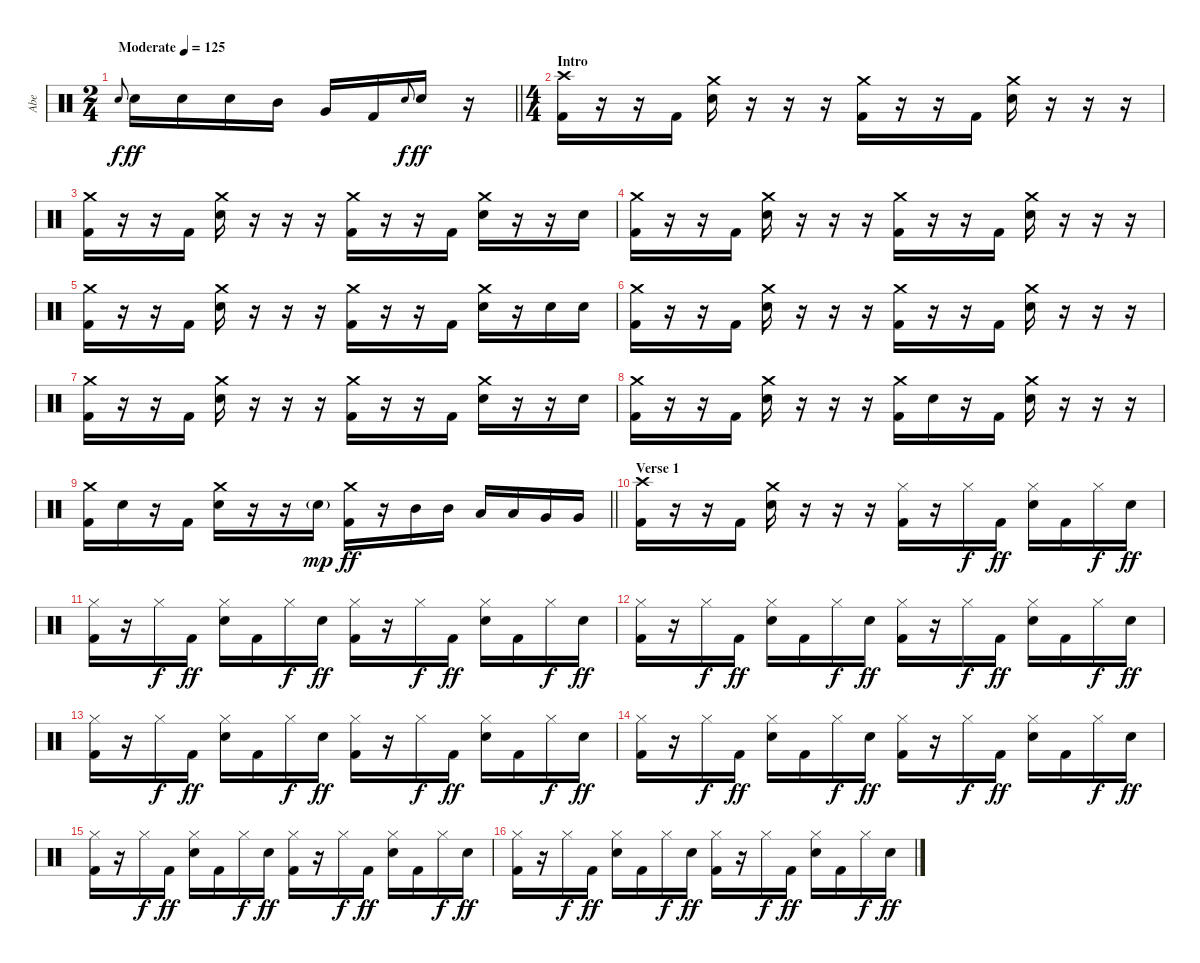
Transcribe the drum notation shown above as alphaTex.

\track ("Abe" "Abe") {instrument percussion}
\staff {score}
\articulation defaults
\ts (2 4)
\tempo (125 "Moderate")
\clef neutral
\barLineRight lightlight
\ks c "Electric Snare (hit)".8{gr onbeat dy f} "Electric Snare (hit)".16{dy ff} "Electric Snare (hit)".16 "Electric Snare (hit)".16 "Mid Tom (hit)".16 "Very Low Tom (hit)".16 "Kick (hit) 2".16 "Electric Snare (hit)".8{gr onbeat dy f} "Electric Snare (hit)".16{dy ff}
r.16 |
\ts (4 4)
\section ("" "Intro")
("Crash high (hit)" "Kick (hit) 2").16 r.16 r.16 "Kick (hit) 2".16 ("Crash medium (hit)" "Electric Snare (hit)").16 r.16 r.16 r.16 ("Crash medium (hit)" "Kick (hit) 2").16 r.16 r.16 "Kick (hit) 2".16 ("Crash medium (hit)" "Electric Snare (hit)").16 r.16 r.16 r.16 |
("Crash medium (hit)" "Kick (hit) 2").16 r.16 r.16 "Kick (hit) 2".16 ("Crash medium (hit)" "Electric Snare (hit)").16 r.16 r.16 r.16 ("Crash medium (hit)" "Kick (hit) 2").16 r.16 r.16 "Kick (hit) 2".16 ("Crash medium (hit)" "Electric Snare (hit)").16 r.16 r.16 "Electric Snare (hit)".16 |
("Crash medium (hit)" "Kick (hit) 2").16 r.16 r.16 "Kick (hit) 2".16 ("Crash medium (hit)" "Electric Snare (hit)").16 r.16 r.16 r.16 ("Crash medium (hit)" "Kick (hit) 2").16 r.16 r.16 "Kick (hit) 2".16 ("Crash medium (hit)" "Electric Snare (hit)").16 r.16 r.16 r.16 |
("Crash medium (hit)" "Kick (hit) 2").16 r.16 r.16 "Kick (hit) 2".16 ("Crash medium (hit)" "Electric Snare (hit)").16 r.16 r.16 r.16 ("Crash medium (hit)" "Kick (hit) 2").16 r.16 r.16 "Kick (hit) 2".16 ("Crash medium (hit)" "Electric Snare (hit)").16 r.16 "Electric Snare (hit)".16 "Electric Snare (hit)".16 |
("Crash medium (hit)" "Kick (hit) 2").16 r.16 r.16 "Kick (hit) 2".16 ("Crash medium (hit)" "Electric Snare (hit)").16 r.16 r.16 r.16 ("Crash medium (hit)" "Kick (hit) 2").16 r.16 r.16 "Kick (hit) 2".16 ("Crash medium (hit)" "Electric Snare (hit)").16 r.16 r.16 r.16 |
("Crash medium (hit)" "Kick (hit) 2").16 r.16 r.16 "Kick (hit) 2".16 ("Crash medium (hit)" "Electric Snare (hit)").16 r.16 r.16 r.16 ("Crash medium (hit)" "Kick (hit) 2").16 r.16 r.16 "Kick (hit) 2".16 ("Crash medium (hit)" "Electric Snare (hit)").16 r.16 r.16 "Electric Snare (hit)".16 |
("Crash medium (hit)" "Kick (hit) 2").16 r.16 r.16 "Kick (hit) 2".16 ("Crash medium (hit)" "Electric Snare (hit)").16 r.16 r.16 r.16 ("Crash medium (hit)" "Kick (hit) 2").16 "Electric Snare (hit)".16 r.16 "Kick (hit) 2".16 ("Crash medium (hit)" "Electric Snare (hit)").16 r.16 r.16 r.16 |
\barLineRight lightlight
("Crash medium (hit)" "Kick (hit) 2").16 "Electric Snare (hit)".16 r.16 "Kick (hit) 2".16 ("Crash medium (hit)" "Electric Snare (hit)").16 r.16 r.16 "Electric Snare (hit)"{g}.16{dy mp} ("Crash medium (hit)" "Kick (hit) 2").16{dy ff} r.16 "Mid Tom (hit)".16 "Mid Tom (hit)".16 "Low Tom (hit)".16 "Low Tom (hit)".16 "Very Low Tom (hit)".16 "Very Low Tom (hit)".16 |
\section ("" "Verse 1")
("Crash high (hit)" "Kick (hit) 2").16 r.16 r.16 "Kick (hit) 2".16 ("Crash medium (hit)" "Electric Snare (hit)").16 r.16 r.16 r.16 ("Hi-Hat (closed)" "Kick (hit) 2").16 r.16 "Hi-Hat (closed)".16{dy f} "Kick (hit) 2".16{dy ff} ("Hi-Hat (closed)" "Electric Snare (hit)").16 "Kick (hit) 2".16 "Hi-Hat (closed)".16{dy f} "Electric Snare (hit)".16{dy ff} |
("Hi-Hat (closed)" "Kick (hit) 2").16 r.16 "Hi-Hat (closed)".16{dy f} "Kick (hit) 2".16{dy ff} ("Hi-Hat (closed)" "Electric Snare (hit)").16 "Kick (hit) 2".16 "Hi-Hat (closed)".16{dy f} "Electric Snare (hit)".16{dy ff} ("Hi-Hat (closed)" "Kick (hit) 2").16 r.16 "Hi-Hat (closed)".16{dy f} "Kick (hit) 2".16{dy ff} ("Hi-Hat (closed)" "Electric Snare (hit)").16 "Kick (hit) 2".16 "Hi-Hat (closed)".16{dy f} "Electric Snare (hit)".16{dy ff} |
("Hi-Hat (closed)" "Kick (hit) 2").16 r.16 "Hi-Hat (closed)".16{dy f} "Kick (hit) 2".16{dy ff} ("Hi-Hat (closed)" "Electric Snare (hit)").16 "Kick (hit) 2".16 "Hi-Hat (closed)".16{dy f} "Electric Snare (hit)".16{dy ff} ("Hi-Hat (closed)" "Kick (hit) 2").16 r.16 "Hi-Hat (closed)".16{dy f} "Kick (hit) 2".16{dy ff} ("Hi-Hat (closed)" "Electric Snare (hit)").16 "Kick (hit) 2".16 "Hi-Hat (closed)".16{dy f} "Electric Snare (hit)".16{dy ff} |
("Hi-Hat (closed)" "Kick (hit) 2").16 r.16 "Hi-Hat (closed)".16{dy f} "Kick (hit) 2".16{dy ff} ("Hi-Hat (closed)" "Electric Snare (hit)").16 "Kick (hit) 2".16 "Hi-Hat (closed)".16{dy f} "Electric Snare (hit)".16{dy ff} ("Hi-Hat (closed)" "Kick (hit) 2").16 r.16 "Hi-Hat (closed)".16{dy f} "Kick (hit) 2".16{dy ff} ("Hi-Hat (closed)" "Electric Snare (hit)").16 "Kick (hit) 2".16 "Hi-Hat (closed)".16{dy f} "Electric Snare (hit)".16{dy ff} |
("Hi-Hat (closed)" "Kick (hit) 2").16 r.16 "Hi-Hat (closed)".16{dy f} "Kick (hit) 2".16{dy ff} ("Hi-Hat (closed)" "Electric Snare (hit)").16 "Kick (hit) 2".16 "Hi-Hat (closed)".16{dy f} "Electric Snare (hit)".16{dy ff} ("Hi-Hat (closed)" "Kick (hit) 2").16 r.16 "Hi-Hat (closed)".16{dy f} "Kick (hit) 2".16{dy ff} ("Hi-Hat (closed)" "Electric Snare (hit)").16 "Kick (hit) 2".16 "Hi-Hat (closed)".16{dy f} "Electric Snare (hit)".16{dy ff} |
("Hi-Hat (closed)" "Kick (hit) 2").16 r.16 "Hi-Hat (closed)".16{dy f} "Kick (hit) 2".16{dy ff} ("Hi-Hat (closed)" "Electric Snare (hit)").16 "Kick (hit) 2".16 "Hi-Hat (closed)".16{dy f} "Electric Snare (hit)".16{dy ff} ("Hi-Hat (closed)" "Kick (hit) 2").16 r.16 "Hi-Hat (closed)".16{dy f} "Kick (hit) 2".16{dy ff} ("Hi-Hat (closed)" "Electric Snare (hit)").16 "Kick (hit) 2".16 "Hi-Hat (closed)".16{dy f} "Electric Snare (hit)".16{dy ff} |
("Hi-Hat (closed)" "Kick (hit) 2").16 r.16 "Hi-Hat (closed)".16{dy f} "Kick (hit) 2".16{dy ff} ("Hi-Hat (closed)" "Electric Snare (hit)").16 "Kick (hit) 2".16 "Hi-Hat (closed)".16{dy f} "Electric Snare (hit)".16{dy ff} ("Hi-Hat (closed)" "Kick (hit) 2").16 r.16 "Hi-Hat (closed)".16{dy f} "Kick (hit) 2".16{dy ff} ("Hi-Hat (closed)" "Electric Snare (hit)").16 "Kick (hit) 2".16 "Hi-Hat (closed)".16{dy f} "Electric Snare (hit)".16{dy ff}
